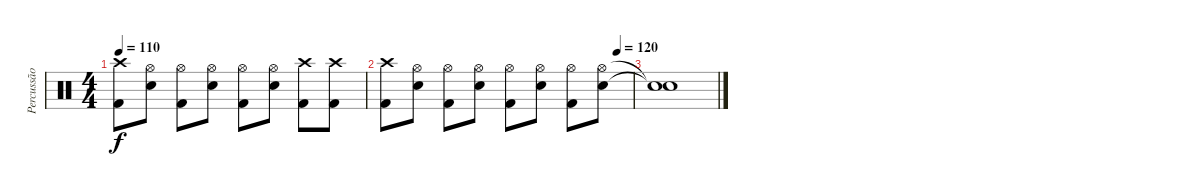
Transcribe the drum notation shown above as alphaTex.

\track ("Percussão" "Percussão") {instrument percussion}
\staff {score}
\articulation defaults
\ts (4 4)
\tempo 110
\clef neutral
\ks c
("Crash high (hit)" "Kick (hit) 2").8{dy f} ("Hi-Hat (open)" "Snare (hit) 2").8 ("Hi-Hat (open)" "Kick (hit) 2").8 ("Hi-Hat (open)" "Snare (hit) 2").8 ("Hi-Hat (open)" "Kick (hit) 2").8 ("Hi-Hat (open)" "Snare (hit) 2").8 ("Crash high (hit)" "Kick (hit) 2").8 ("Crash high (hit)" "Kick (hit) 2").8 |
\tempo (120 0.9375)
("Crash high (hit)" "Kick (hit) 2").8 ("Hi-Hat (open)" "Snare (hit) 2").8 ("Hi-Hat (open)" "Kick (hit) 2").8 ("Hi-Hat (open)" "Snare (hit) 2").8 ("Hi-Hat (open)" "Kick (hit) 2").8 ("Hi-Hat (open)" "Snare (hit) 2").8 ("Hi-Hat (open)" "Kick (hit) 2").8 ("Hi-Hat (open)" "Snare (hit) 2").8 |
("Snare (hit)"{t} "Snare (hit)"{t}).1
